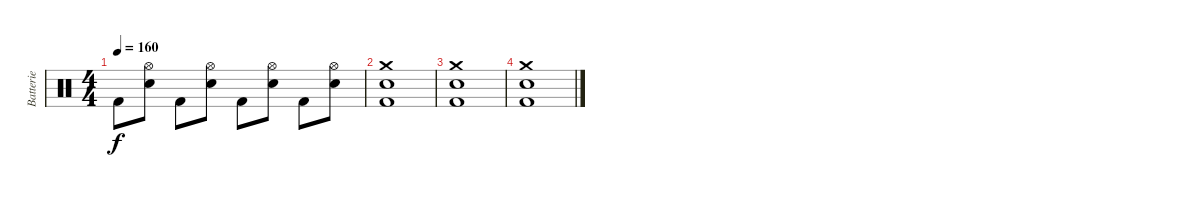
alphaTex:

\track ("Batterie" "Batterie") {instrument percussion}
\staff {score}
\articulation defaults
\ts (4 4)
\tempo 160
\clef neutral
\ks c "Kick (hit) 2".8{dy f}
("Electric Snare (hit)" "Hi-Hat (open)").8 "Kick (hit) 2".8 ("Electric Snare (hit)" "Hi-Hat (open)").8 "Kick (hit) 2".8 ("Electric Snare (hit)" "Hi-Hat (open)").8 "Kick (hit) 2".8 ("Electric Snare (hit)" "Hi-Hat (open)").8 |
("Kick (hit) 2" "Electric Snare (hit)" "Crash medium (hit)").1 |
("Kick (hit) 2" "Electric Snare (hit)" "Crash medium (hit)").1 |
("Kick (hit) 2" "Electric Snare (hit)" "Crash medium (hit)").1
